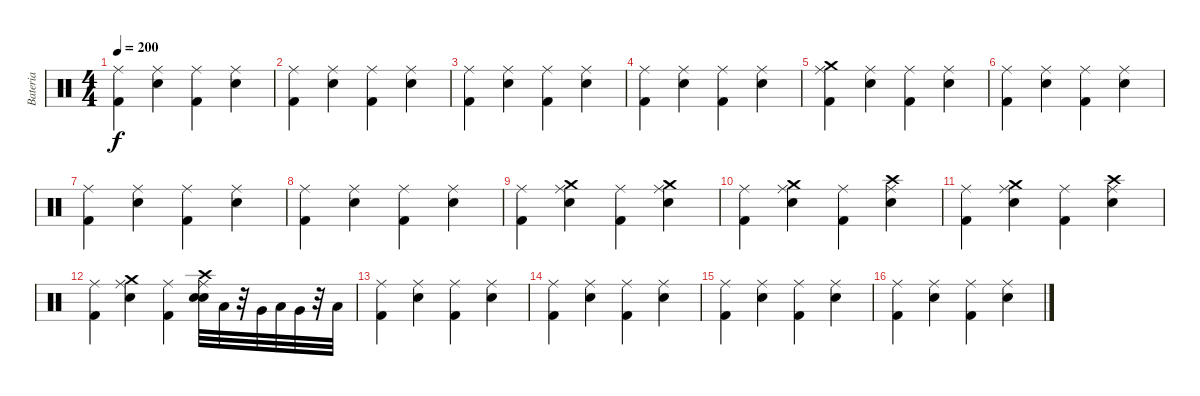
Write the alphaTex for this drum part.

\track ("Bateria" "Bateria") {instrument percussion}
\staff {score}
\articulation defaults
\ts (4 4)
\tempo 200
\clef neutral
\ks c
("Ride (middle)" "Kick (hit) 2").4{dy f} ("Ride (middle)" "Snare (hit) 2").4 ("Ride (middle)" "Kick (hit) 2").4 ("Ride (middle)" "Snare (hit) 2").4 |
("Ride (middle)" "Kick (hit) 2").4 ("Ride (middle)" "Snare (hit) 2").4 ("Ride (middle)" "Kick (hit) 2").4 ("Ride (middle)" "Snare (hit) 2").4 |
("Ride (middle)" "Kick (hit) 2").4 ("Ride (middle)" "Snare (hit) 2").4 ("Ride (middle)" "Kick (hit) 2").4 ("Ride (middle)" "Snare (hit) 2").4 |
("Ride (middle)" "Kick (hit) 2").4 ("Ride (middle)" "Snare (hit) 2").4 ("Ride (middle)" "Kick (hit) 2").4 ("Ride (middle)" "Snare (hit) 2").4 |
("Crash medium (hit)" "Ride (middle)" "Kick (hit) 2").4 ("Ride (middle)" "Snare (hit) 2").4 ("Ride (middle)" "Kick (hit) 2").4 ("Ride (middle)" "Snare (hit) 2").4 |
("Ride (middle)" "Kick (hit) 2").4 ("Ride (middle)" "Snare (hit) 2").4 ("Ride (middle)" "Kick (hit) 2").4 ("Ride (middle)" "Snare (hit) 2").4 |
("Ride (middle)" "Kick (hit) 2").4 ("Ride (middle)" "Snare (hit) 2").4 ("Ride (middle)" "Kick (hit) 2").4 ("Ride (middle)" "Snare (hit) 2").4 |
("Ride (middle)" "Kick (hit) 2").4 ("Ride (middle)" "Snare (hit) 2").4 ("Ride (middle)" "Kick (hit) 2").4 ("Ride (middle)" "Snare (hit) 2").4 |
("Ride (middle)" "Kick (hit) 2").4 ("Crash medium (hit)" "Ride (middle)" "Snare (hit) 2").4 ("Ride (middle)" "Kick (hit) 2").4 ("Crash medium (hit)" "Ride (middle)" "Snare (hit) 2").4 |
("Ride (middle)" "Kick (hit) 2").4 ("Crash medium (hit)" "Ride (middle)" "Snare (hit) 2").4 ("Ride (middle)" "Kick (hit) 2").4 ("Crash high (hit)" "Ride (middle)" "Snare (hit) 2").4 |
("Ride (middle)" "Kick (hit) 2").4 ("Crash medium (hit)" "Ride (middle)" "Snare (hit) 2").4 ("Ride (middle)" "Kick (hit) 2").4 ("Crash high (hit)" "Ride (middle)" "Snare (hit) 2").4 |
("Ride (middle)" "Kick (hit) 2").4 ("Crash medium (hit)" "Ride (middle)" "Snare (hit) 2").4 ("Ride (middle)" "Kick (hit) 2").4 ("Snare (hit) 2" "Crash high (hit)" "Ride (middle)" "Snare (hit) 2").32 "Low Tom (hit)".32 r.32 "Very Low Tom (hit)".32 "Low Tom (hit)".32 "Very Low Tom (hit)".32 r.32 "Low Floor Tom (hit)".32 |
("Ride (middle)" "Kick (hit) 2").4 ("Ride (middle)" "Snare (hit) 2").4 ("Ride (middle)" "Kick (hit) 2").4 ("Ride (middle)" "Snare (hit) 2").4 |
("Ride (middle)" "Kick (hit) 2").4 ("Ride (middle)" "Snare (hit) 2").4 ("Ride (middle)" "Kick (hit) 2").4 ("Ride (middle)" "Snare (hit) 2").4 |
("Ride (middle)" "Kick (hit) 2").4 ("Ride (middle)" "Snare (hit) 2").4 ("Ride (middle)" "Kick (hit) 2").4 ("Ride (middle)" "Snare (hit) 2").4 |
("Ride (middle)" "Kick (hit) 2").4 ("Ride (middle)" "Snare (hit) 2").4 ("Ride (middle)" "Kick (hit) 2").4 ("Ride (middle)" "Snare (hit) 2").4
